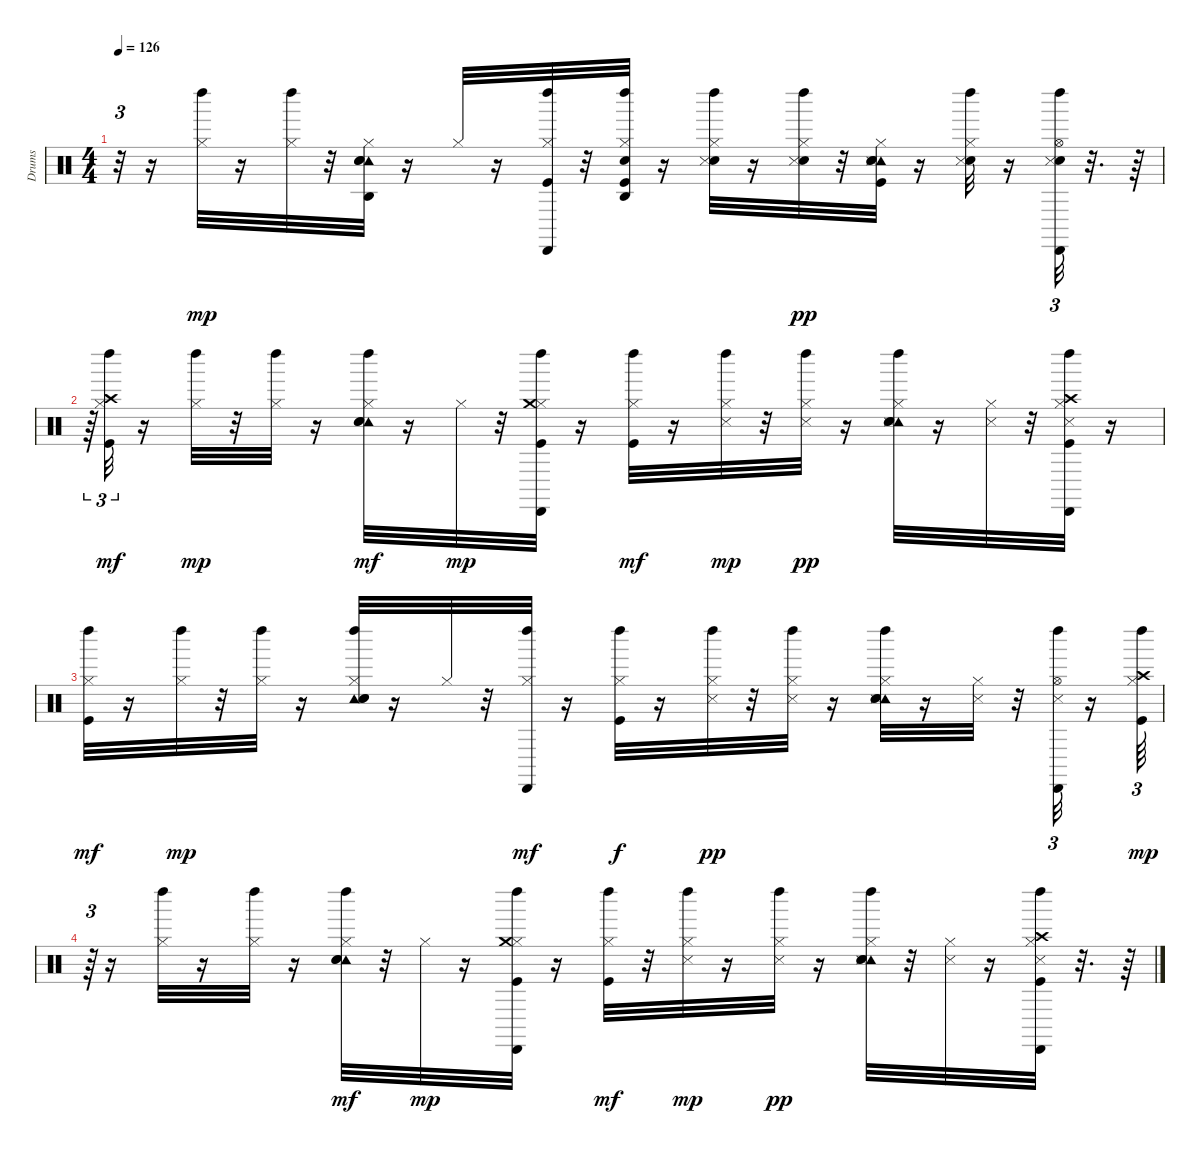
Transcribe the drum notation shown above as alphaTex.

\track ("Drums" "Drums") {instrument percussion}
\staff {score}
\articulation defaults
\ts (4 4)
\tempo 126
\clef neutral
\ks c
r.32{tu (3 2) dy mf} r.16 ("Hi-Hat (closed)" "Left Maraca (hit)").32{dy mp} r.16 ("Left Maraca (hit)" "Hi-Hat (closed)").32 r.32 ("Tambourine (hit)" "Snare (hit) 2" "Hi-Hat (closed)" "Agogo high (hit)" "Hand Clap (hit)").32 r.16 "Hi-Hat (closed)".32 r.16 ("Kick (hit)" "Hi-Hat (closed)" "Left Maraca (hit)" "Cabasa (hit)").32 r.32 ("Kick (hit)" "Snare (hit) 2" "Hi-Hat (closed)" "Left Maraca (hit)" "Agogo high (hit)").32 r.16 ("Hi-Hat (closed)" "Snare (hit) 2" "Snare (side stick) 3" "Left Maraca (hit)").32 r.16 ("Snare (hit) 2" "Hi-Hat (closed)" "Left Maraca (hit)" "Snare (side stick) 3").32{dy pp} r.32 ("Hi-Hat (closed)" "Tambourine (hit)" "Hand Clap (hit)" "Kick (hit)" "Snare (hit) 2" "Snare (side stick) 3").32 r.16 ("Hi-Hat (closed)" "Left Maraca (hit)" "Snare (hit) 2" "Snare (side stick) 3").32 r.16 ("Hi-Hat (open)" "Left Maraca (hit)" "Cabasa (hit)" "Snare (hit) 2" "Snare (side stick) 3").32{tu (3 2)} r.32{d} r.64 |
r.64{tu (3 2)} ("Kick (hit)" "Hi-Hat (closed)" "Crash high (hit)" "Left Maraca (hit)").32{tu (3 2) dy mf} r.16 ("Hi-Hat (closed)" "Left Maraca (hit)").32{dy mp} r.32 ("Hi-Hat (closed)" "Left Maraca (hit)").32 r.16 ("Hi-Hat (closed)" "Tambourine (hit)" "Snare (hit) 2" "Left Maraca (hit)" "Hand Clap (hit)").32{dy mf} r.16 "Hi-Hat (closed)".32{dy mp} r.32 ("Cabasa (hit)" "Kick (hit)" "Hi-Hat (closed)" "Crash medium (hit)" "Left Maraca (hit)").32 r.16 ("Hi-Hat (closed)" "Kick (hit)" "Left Maraca (hit)").32{dy mf} r.16 ("Hi-Hat (closed)" "Snare (side stick) 3" "Left Maraca (hit)").32{dy mp} r.32 ("Hi-Hat (closed)" "Left Maraca (hit)" "Snare (side stick) 3").32{dy pp} r.16 ("Hi-Hat (closed)" "Tambourine (hit)" "Hand Clap (hit)" "Snare (hit) 2" "Snare (side stick) 3" "Left Maraca (hit)").32 r.16 ("Hi-Hat (closed)" "Snare (side stick) 3").32 r.32 ("Cabasa (hit)" "Crash high (hit)" "Hi-Hat (closed)" "Kick (hit)" "Snare (side stick) 3" "Left Maraca (hit)").32 r.16 |
("Left Maraca (hit)" "Kick (hit)" "Hi-Hat (closed)").32{dy mf} r.16 ("Left Maraca (hit)" "Hi-Hat (closed)").32{dy mp} r.32 ("Left Maraca (hit)" "Hi-Hat (closed)").32 r.16 ("Left Maraca (hit)" "Tambourine (hit)" "Snare (hit) 2" "Hi-Hat (closed)" "Hand Clap (hit)").32 r.16 "Hi-Hat (closed)".32 r.32 ("Hi-Hat (closed)" "Left Maraca (hit)" "Cabasa (hit)").32{dy mf} r.16 ("Kick (hit)" "Hi-Hat (closed)" "Left Maraca (hit)").32{dy f} r.16 ("Hi-Hat (closed)" "Left Maraca (hit)" "Snare (side stick) 3").32{dy pp} r.32 ("Hi-Hat (closed)" "Left Maraca (hit)" "Snare (side stick) 3").32 r.16 ("Hi-Hat (closed)" "Tambourine (hit)" "Hand Clap (hit)" "Snare (hit) 2" "Snare (side stick) 3" "Left Maraca (hit)").32 r.16 ("Hi-Hat (closed)" "Snare (side stick) 3").32 r.32 ("Hi-Hat (open)" "Cabasa (hit)" "Snare (side stick) 3" "Left Maraca (hit)").32{tu (3 2)} r.16 ("Kick (hit)" "Hi-Hat (closed)" "Crash high (hit)" "Left Maraca (hit)").64{tu (3 2) dy mp} |
r.64{tu (3 2)} r.16 ("Hi-Hat (closed)" "Left Maraca (hit)").32 r.16 ("Hi-Hat (closed)" "Left Maraca (hit)").32 r.16 ("Hi-Hat (closed)" "Tambourine (hit)" "Snare (hit) 2" "Left Maraca (hit)" "Hand Clap (hit)").32{dy mf} r.32 "Hi-Hat (closed)".32{dy mp} r.16 ("Cabasa (hit)" "Kick (hit)" "Hi-Hat (closed)" "Crash medium (hit)" "Left Maraca (hit)").32 r.16 ("Hi-Hat (closed)" "Kick (hit)" "Left Maraca (hit)").32{dy mf} r.32 ("Hi-Hat (closed)" "Snare (side stick) 3" "Left Maraca (hit)").32{dy mp} r.16 ("Hi-Hat (closed)" "Left Maraca (hit)" "Snare (side stick) 3").32{dy pp} r.16 ("Hi-Hat (closed)" "Tambourine (hit)" "Hand Clap (hit)" "Snare (hit) 2" "Snare (side stick) 3" "Left Maraca (hit)").32 r.32 ("Hi-Hat (closed)" "Snare (side stick) 3").32 r.16 ("Cabasa (hit)" "Crash high (hit)" "Hi-Hat (closed)" "Kick (hit)" "Snare (side stick) 3" "Left Maraca (hit)").32 r.32{d} r.64
